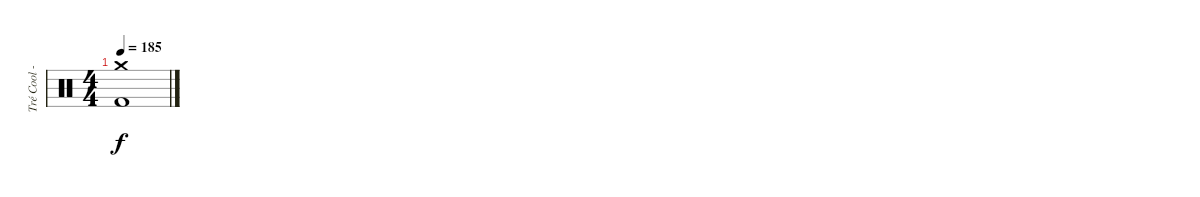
\track ("Tré Cool - Drums" "Tré Cool -") {instrument percussion}
\staff {score}
\articulation defaults
\ts (4 4)
\tempo 185
\clef neutral
\ks c
("Crash medium (hit)" "Kick (hit) 2").1{dy f}
